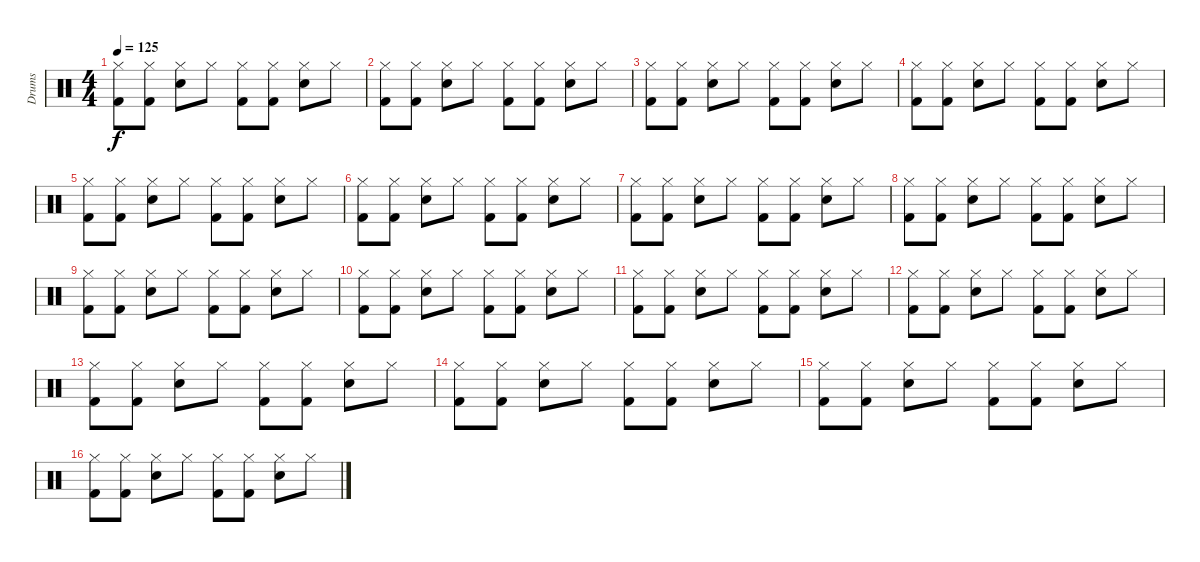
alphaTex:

\track ("Drums" "Drums") {instrument percussion}
\staff {score}
\articulation defaults
\ts (4 4)
\tempo 125
\clef neutral
\ks c
("Hi-Hat (closed)" "Kick (hit) 2").8{dy f} ("Hi-Hat (closed)" "Kick (hit) 2").8 ("Hi-Hat (closed)" "Snare (hit) 2").8 "Hi-Hat (closed)".8 ("Hi-Hat (closed)" "Kick (hit) 2").8 ("Hi-Hat (closed)" "Kick (hit) 2").8 ("Hi-Hat (closed)" "Snare (hit) 2").8 "Hi-Hat (closed)".8 |
("Hi-Hat (closed)" "Kick (hit) 2").8 ("Hi-Hat (closed)" "Kick (hit) 2").8 ("Hi-Hat (closed)" "Snare (hit) 2").8 "Hi-Hat (closed)".8 ("Hi-Hat (closed)" "Kick (hit) 2").8 ("Hi-Hat (closed)" "Kick (hit) 2").8 ("Hi-Hat (closed)" "Snare (hit) 2").8 "Hi-Hat (closed)".8 |
("Hi-Hat (closed)" "Kick (hit) 2").8 ("Hi-Hat (closed)" "Kick (hit) 2").8 ("Hi-Hat (closed)" "Snare (hit) 2").8 "Hi-Hat (closed)".8 ("Hi-Hat (closed)" "Kick (hit) 2").8 ("Hi-Hat (closed)" "Kick (hit) 2").8 ("Hi-Hat (closed)" "Snare (hit) 2").8 "Hi-Hat (closed)".8 |
("Hi-Hat (closed)" "Kick (hit) 2").8 ("Hi-Hat (closed)" "Kick (hit) 2").8 ("Hi-Hat (closed)" "Snare (hit) 2").8 "Hi-Hat (closed)".8 ("Hi-Hat (closed)" "Kick (hit) 2").8 ("Hi-Hat (closed)" "Kick (hit) 2").8 ("Hi-Hat (closed)" "Snare (hit) 2").8 "Hi-Hat (closed)".8 |
("Hi-Hat (closed)" "Kick (hit) 2").8 ("Hi-Hat (closed)" "Kick (hit) 2").8 ("Hi-Hat (closed)" "Snare (hit) 2").8 "Hi-Hat (closed)".8 ("Hi-Hat (closed)" "Kick (hit) 2").8 ("Hi-Hat (closed)" "Kick (hit) 2").8 ("Hi-Hat (closed)" "Snare (hit) 2").8 "Hi-Hat (closed)".8 |
("Hi-Hat (closed)" "Kick (hit) 2").8 ("Hi-Hat (closed)" "Kick (hit) 2").8 ("Hi-Hat (closed)" "Snare (hit) 2").8 "Hi-Hat (closed)".8 ("Hi-Hat (closed)" "Kick (hit) 2").8 ("Hi-Hat (closed)" "Kick (hit) 2").8 ("Hi-Hat (closed)" "Snare (hit) 2").8 "Hi-Hat (closed)".8 |
("Hi-Hat (closed)" "Kick (hit) 2").8 ("Hi-Hat (closed)" "Kick (hit) 2").8 ("Hi-Hat (closed)" "Snare (hit) 2").8 "Hi-Hat (closed)".8 ("Hi-Hat (closed)" "Kick (hit) 2").8 ("Hi-Hat (closed)" "Kick (hit) 2").8 ("Hi-Hat (closed)" "Snare (hit) 2").8 "Hi-Hat (closed)".8 |
("Hi-Hat (closed)" "Kick (hit) 2").8 ("Hi-Hat (closed)" "Kick (hit) 2").8 ("Hi-Hat (closed)" "Snare (hit) 2").8 "Hi-Hat (closed)".8 ("Hi-Hat (closed)" "Kick (hit) 2").8 ("Hi-Hat (closed)" "Kick (hit) 2").8 ("Hi-Hat (closed)" "Snare (hit) 2").8 "Hi-Hat (closed)".8 |
("Hi-Hat (closed)" "Kick (hit) 2").8 ("Hi-Hat (closed)" "Kick (hit) 2").8 ("Hi-Hat (closed)" "Snare (hit) 2").8 "Hi-Hat (closed)".8 ("Hi-Hat (closed)" "Kick (hit) 2").8 ("Hi-Hat (closed)" "Kick (hit) 2").8 ("Hi-Hat (closed)" "Snare (hit) 2").8 "Hi-Hat (closed)".8 |
("Hi-Hat (closed)" "Kick (hit) 2").8 ("Hi-Hat (closed)" "Kick (hit) 2").8 ("Hi-Hat (closed)" "Snare (hit) 2").8 "Hi-Hat (closed)".8 ("Hi-Hat (closed)" "Kick (hit) 2").8 ("Hi-Hat (closed)" "Kick (hit) 2").8 ("Hi-Hat (closed)" "Snare (hit) 2").8 "Hi-Hat (closed)".8 |
("Hi-Hat (closed)" "Kick (hit) 2").8 ("Hi-Hat (closed)" "Kick (hit) 2").8 ("Hi-Hat (closed)" "Snare (hit) 2").8 "Hi-Hat (closed)".8 ("Hi-Hat (closed)" "Kick (hit) 2").8 ("Hi-Hat (closed)" "Kick (hit) 2").8 ("Hi-Hat (closed)" "Snare (hit) 2").8 "Hi-Hat (closed)".8 |
("Hi-Hat (closed)" "Kick (hit) 2").8 ("Hi-Hat (closed)" "Kick (hit) 2").8 ("Hi-Hat (closed)" "Snare (hit) 2").8 "Hi-Hat (closed)".8 ("Hi-Hat (closed)" "Kick (hit) 2").8 ("Hi-Hat (closed)" "Kick (hit) 2").8 ("Hi-Hat (closed)" "Snare (hit) 2").8 "Hi-Hat (closed)".8 |
("Hi-Hat (closed)" "Kick (hit) 2").8 ("Hi-Hat (closed)" "Kick (hit) 2").8 ("Hi-Hat (closed)" "Snare (hit) 2").8 "Hi-Hat (closed)".8 ("Hi-Hat (closed)" "Kick (hit) 2").8 ("Hi-Hat (closed)" "Kick (hit) 2").8 ("Hi-Hat (closed)" "Snare (hit) 2").8 "Hi-Hat (closed)".8 |
("Hi-Hat (closed)" "Kick (hit) 2").8 ("Hi-Hat (closed)" "Kick (hit) 2").8 ("Hi-Hat (closed)" "Snare (hit) 2").8 "Hi-Hat (closed)".8 ("Hi-Hat (closed)" "Kick (hit) 2").8 ("Hi-Hat (closed)" "Kick (hit) 2").8 ("Hi-Hat (closed)" "Snare (hit) 2").8 "Hi-Hat (closed)".8 |
("Hi-Hat (closed)" "Kick (hit) 2").8 ("Hi-Hat (closed)" "Kick (hit) 2").8 ("Hi-Hat (closed)" "Snare (hit) 2").8 "Hi-Hat (closed)".8 ("Hi-Hat (closed)" "Kick (hit) 2").8 ("Hi-Hat (closed)" "Kick (hit) 2").8 ("Hi-Hat (closed)" "Snare (hit) 2").8 "Hi-Hat (closed)".8 |
("Hi-Hat (closed)" "Kick (hit) 2").8 ("Hi-Hat (closed)" "Kick (hit) 2").8 ("Hi-Hat (closed)" "Snare (hit) 2").8 "Hi-Hat (closed)".8 ("Hi-Hat (closed)" "Kick (hit) 2").8 ("Hi-Hat (closed)" "Kick (hit) 2").8 ("Hi-Hat (closed)" "Snare (hit) 2").8 "Hi-Hat (closed)".8
